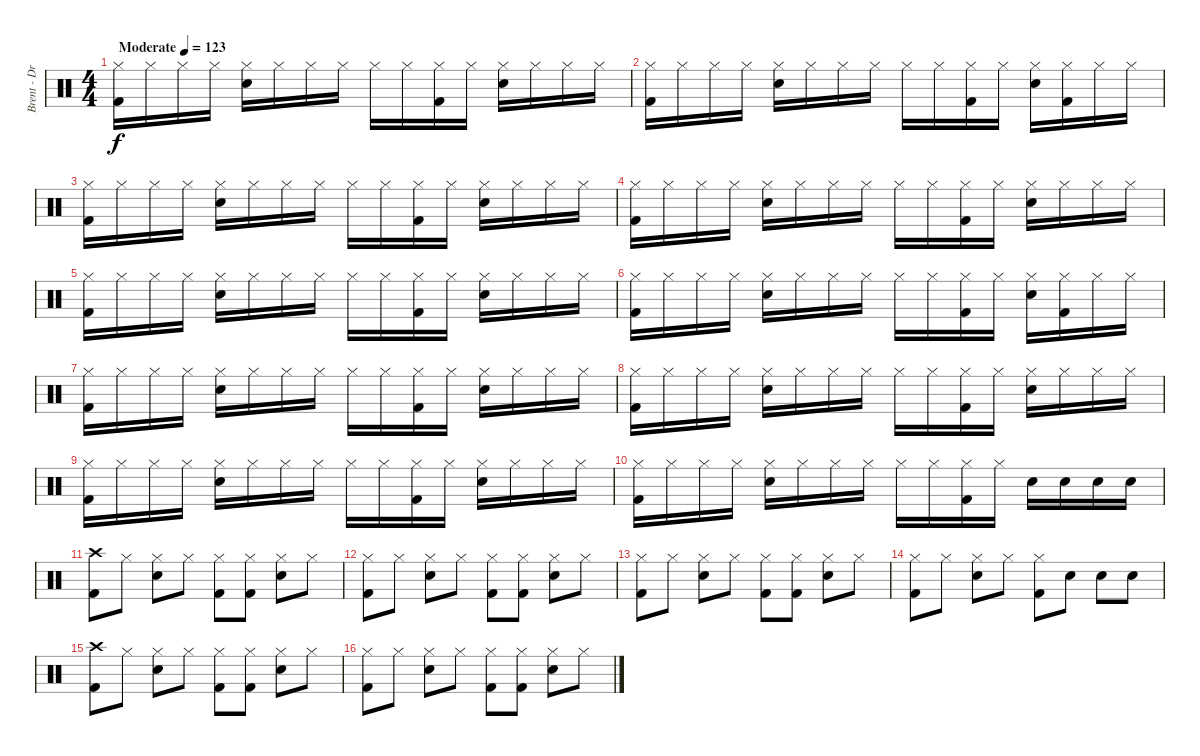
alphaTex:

\track ("Brent - Drums" "Brent - Dr") {instrument percussion}
\staff {score}
\articulation defaults
\ts (4 4)
\tempo (123 "Moderate")
\clef neutral
\ks c
("Hi-Hat (closed)" "Kick (hit) 2").16{dy f} "Hi-Hat (closed)".16 "Hi-Hat (closed)".16 "Hi-Hat (closed)".16 ("Hi-Hat (closed)" "Snare (hit) 2").16 "Hi-Hat (closed)".16 "Hi-Hat (closed)".16 "Hi-Hat (closed)".16 "Hi-Hat (closed)".16 "Hi-Hat (closed)".16 ("Hi-Hat (closed)" "Kick (hit) 2").16 "Hi-Hat (closed)".16 ("Hi-Hat (closed)" "Snare (hit) 2").16 "Hi-Hat (closed)".16 "Hi-Hat (closed)".16 "Hi-Hat (closed)".16 |
("Hi-Hat (closed)" "Kick (hit) 2").16 "Hi-Hat (closed)".16 "Hi-Hat (closed)".16 "Hi-Hat (closed)".16 ("Hi-Hat (closed)" "Snare (hit) 2").16 "Hi-Hat (closed)".16 "Hi-Hat (closed)".16 "Hi-Hat (closed)".16 "Hi-Hat (closed)".16 "Hi-Hat (closed)".16 ("Hi-Hat (closed)" "Kick (hit) 2").16 "Hi-Hat (closed)".16 ("Hi-Hat (closed)" "Snare (hit) 2").16 ("Hi-Hat (closed)" "Kick (hit) 2").16 "Hi-Hat (closed)".16 "Hi-Hat (closed)".16 |
("Hi-Hat (closed)" "Kick (hit) 2").16 "Hi-Hat (closed)".16 "Hi-Hat (closed)".16 "Hi-Hat (closed)".16 ("Hi-Hat (closed)" "Snare (hit) 2").16 "Hi-Hat (closed)".16 "Hi-Hat (closed)".16 "Hi-Hat (closed)".16 "Hi-Hat (closed)".16 "Hi-Hat (closed)".16 ("Hi-Hat (closed)" "Kick (hit) 2").16 "Hi-Hat (closed)".16 ("Hi-Hat (closed)" "Snare (hit) 2").16 "Hi-Hat (closed)".16 "Hi-Hat (closed)".16 "Hi-Hat (closed)".16 |
("Hi-Hat (closed)" "Kick (hit) 2").16 "Hi-Hat (closed)".16 "Hi-Hat (closed)".16 "Hi-Hat (closed)".16 ("Hi-Hat (closed)" "Snare (hit) 2").16 "Hi-Hat (closed)".16 "Hi-Hat (closed)".16 "Hi-Hat (closed)".16 "Hi-Hat (closed)".16 "Hi-Hat (closed)".16 ("Hi-Hat (closed)" "Kick (hit) 2").16 "Hi-Hat (closed)".16 ("Hi-Hat (closed)" "Snare (hit) 2").16 "Hi-Hat (closed)".16 "Hi-Hat (closed)".16 "Hi-Hat (closed)".16 |
("Hi-Hat (closed)" "Kick (hit) 2").16 "Hi-Hat (closed)".16 "Hi-Hat (closed)".16 "Hi-Hat (closed)".16 ("Hi-Hat (closed)" "Snare (hit) 2").16 "Hi-Hat (closed)".16 "Hi-Hat (closed)".16 "Hi-Hat (closed)".16 "Hi-Hat (closed)".16 "Hi-Hat (closed)".16 ("Hi-Hat (closed)" "Kick (hit) 2").16 "Hi-Hat (closed)".16 ("Hi-Hat (closed)" "Snare (hit) 2").16 "Hi-Hat (closed)".16 "Hi-Hat (closed)".16 "Hi-Hat (closed)".16 |
("Hi-Hat (closed)" "Kick (hit) 2").16 "Hi-Hat (closed)".16 "Hi-Hat (closed)".16 "Hi-Hat (closed)".16 ("Hi-Hat (closed)" "Snare (hit) 2").16 "Hi-Hat (closed)".16 "Hi-Hat (closed)".16 "Hi-Hat (closed)".16 "Hi-Hat (closed)".16 "Hi-Hat (closed)".16 ("Hi-Hat (closed)" "Kick (hit) 2").16 "Hi-Hat (closed)".16 ("Hi-Hat (closed)" "Snare (hit) 2").16 ("Hi-Hat (closed)" "Kick (hit) 2").16 "Hi-Hat (closed)".16 "Hi-Hat (closed)".16 |
("Hi-Hat (closed)" "Kick (hit) 2").16 "Hi-Hat (closed)".16 "Hi-Hat (closed)".16 "Hi-Hat (closed)".16 ("Hi-Hat (closed)" "Snare (hit) 2").16 "Hi-Hat (closed)".16 "Hi-Hat (closed)".16 "Hi-Hat (closed)".16 "Hi-Hat (closed)".16 "Hi-Hat (closed)".16 ("Hi-Hat (closed)" "Kick (hit) 2").16 "Hi-Hat (closed)".16 ("Hi-Hat (closed)" "Snare (hit) 2").16 "Hi-Hat (closed)".16 "Hi-Hat (closed)".16 "Hi-Hat (closed)".16 |
("Hi-Hat (closed)" "Kick (hit) 2").16 "Hi-Hat (closed)".16 "Hi-Hat (closed)".16 "Hi-Hat (closed)".16 ("Hi-Hat (closed)" "Snare (hit) 2").16 "Hi-Hat (closed)".16 "Hi-Hat (closed)".16 "Hi-Hat (closed)".16 "Hi-Hat (closed)".16 "Hi-Hat (closed)".16 ("Hi-Hat (closed)" "Kick (hit) 2").16 "Hi-Hat (closed)".16 ("Hi-Hat (closed)" "Snare (hit) 2").16 "Hi-Hat (closed)".16 "Hi-Hat (closed)".16 "Hi-Hat (closed)".16 |
("Hi-Hat (closed)" "Kick (hit) 2").16 "Hi-Hat (closed)".16 "Hi-Hat (closed)".16 "Hi-Hat (closed)".16 ("Hi-Hat (closed)" "Snare (hit) 2").16 "Hi-Hat (closed)".16 "Hi-Hat (closed)".16 "Hi-Hat (closed)".16 "Hi-Hat (closed)".16 "Hi-Hat (closed)".16 ("Hi-Hat (closed)" "Kick (hit) 2").16 "Hi-Hat (closed)".16 ("Hi-Hat (closed)" "Snare (hit) 2").16 "Hi-Hat (closed)".16 "Hi-Hat (closed)".16 "Hi-Hat (closed)".16 |
("Hi-Hat (closed)" "Kick (hit) 2").16 "Hi-Hat (closed)".16 "Hi-Hat (closed)".16 "Hi-Hat (closed)".16 ("Hi-Hat (closed)" "Snare (hit) 2").16 "Hi-Hat (closed)".16 "Hi-Hat (closed)".16 "Hi-Hat (closed)".16 "Hi-Hat (closed)".16 "Hi-Hat (closed)".16 ("Hi-Hat (closed)" "Kick (hit) 2").16 "Hi-Hat (closed)".16 "Snare (hit) 2".16 "Snare (hit) 2".16 "Snare (hit) 2".16 "Snare (hit) 2".16 |
("Crash high (hit)" "Kick (hit) 2").8 "Hi-Hat (closed)".8 ("Hi-Hat (closed)" "Snare (hit) 2").8 "Hi-Hat (closed)".8 ("Hi-Hat (closed)" "Kick (hit) 2").8 ("Hi-Hat (closed)" "Kick (hit) 2").8 ("Hi-Hat (closed)" "Snare (hit) 2").8 "Hi-Hat (closed)".8 |
("Hi-Hat (closed)" "Kick (hit) 2").8 "Hi-Hat (closed)".8 ("Hi-Hat (closed)" "Snare (hit) 2").8 "Hi-Hat (closed)".8 ("Hi-Hat (closed)" "Kick (hit) 2").8 ("Hi-Hat (closed)" "Kick (hit) 2").8 ("Hi-Hat (closed)" "Snare (hit) 2").8 "Hi-Hat (closed)".8 |
("Hi-Hat (closed)" "Kick (hit) 2").8 "Hi-Hat (closed)".8 ("Hi-Hat (closed)" "Snare (hit) 2").8 "Hi-Hat (closed)".8 ("Hi-Hat (closed)" "Kick (hit) 2").8 ("Hi-Hat (closed)" "Kick (hit) 2").8 ("Hi-Hat (closed)" "Snare (hit) 2").8 "Hi-Hat (closed)".8 |
("Hi-Hat (closed)" "Kick (hit) 2").8 "Hi-Hat (closed)".8 ("Hi-Hat (closed)" "Snare (hit) 2").8 "Hi-Hat (closed)".8 ("Hi-Hat (closed)" "Kick (hit) 2").8 "Snare (hit) 2".8 "Snare (hit) 2".8 "Snare (hit) 2".8 |
("Crash high (hit)" "Kick (hit) 2").8 "Hi-Hat (closed)".8 ("Hi-Hat (closed)" "Snare (hit) 2").8 "Hi-Hat (closed)".8 ("Hi-Hat (closed)" "Kick (hit) 2").8 ("Hi-Hat (closed)" "Kick (hit) 2").8 ("Hi-Hat (closed)" "Snare (hit) 2").8 "Hi-Hat (closed)".8 |
("Hi-Hat (closed)" "Kick (hit) 2").8 "Hi-Hat (closed)".8 ("Hi-Hat (closed)" "Snare (hit) 2").8 "Hi-Hat (closed)".8 ("Hi-Hat (closed)" "Kick (hit) 2").8 ("Hi-Hat (closed)" "Kick (hit) 2").8 ("Hi-Hat (closed)" "Snare (hit) 2").8 "Hi-Hat (closed)".8
